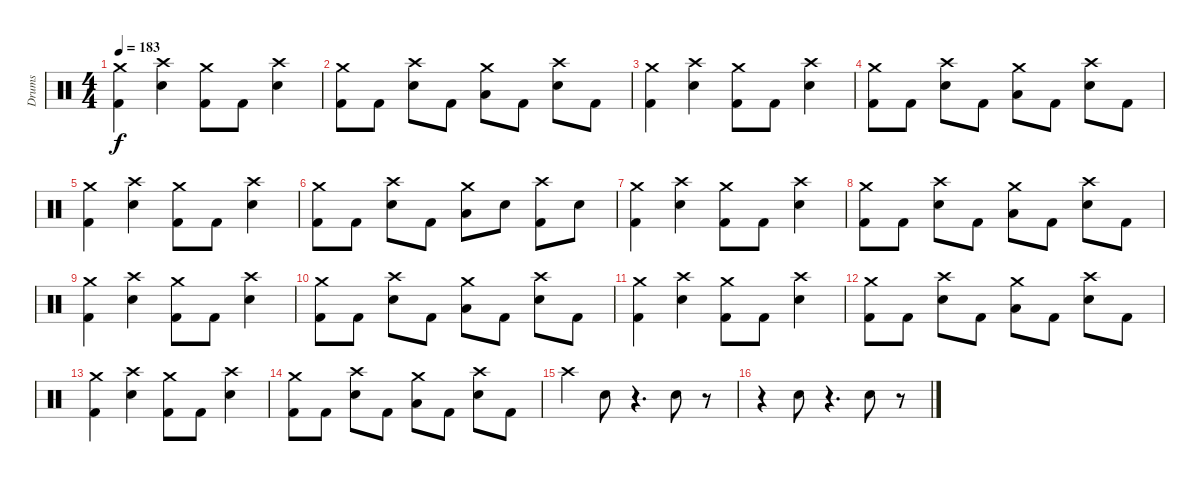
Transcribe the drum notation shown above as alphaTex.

\track ("Drums" "Drums") {instrument percussion}
\staff {score}
\articulation defaults
\ts (4 4)
\tempo 183
\clef neutral
\ks c
("Kick (hit) 2" "Crash medium (hit)").4{dy f} ("Snare (hit) 2" "Crash high (hit)").4 ("Kick (hit) 2" "Crash medium (hit)").8 "Kick (hit) 2".8 ("Snare (hit) 2" "Crash high (hit)").4 |
("Kick (hit) 2" "Crash medium (hit)").8 "Kick (hit) 2".8 ("Snare (hit) 2" "Crash high (hit)").8 "Kick (hit) 2".8 ("Low Tom (hit)" "Crash medium (hit)").8 "Kick (hit) 2".8 ("Snare (hit) 2" "Crash high (hit)").8 "Kick (hit) 2".8 |
("Kick (hit) 2" "Crash medium (hit)").4 ("Snare (hit) 2" "Crash high (hit)").4 ("Kick (hit) 2" "Crash medium (hit)").8 "Kick (hit) 2".8 ("Snare (hit) 2" "Crash high (hit)").4 |
("Kick (hit) 2" "Crash medium (hit)").8 "Kick (hit) 2".8 ("Snare (hit) 2" "Crash high (hit)").8 "Kick (hit) 2".8 ("Low Tom (hit)" "Crash medium (hit)").8 "Kick (hit) 2".8 ("Snare (hit) 2" "Crash high (hit)").8 "Kick (hit) 2".8 |
("Kick (hit) 2" "Crash medium (hit)").4 ("Snare (hit) 2" "Crash high (hit)").4 ("Kick (hit) 2" "Crash medium (hit)").8 "Kick (hit) 2".8 ("Snare (hit) 2" "Crash high (hit)").4 |
("Kick (hit) 2" "Crash medium (hit)").8 "Kick (hit) 2".8 ("Snare (hit) 2" "Crash high (hit)").8 "Kick (hit) 2".8 ("Low Tom (hit)" "Crash medium (hit)").8 "Snare (hit) 2".8 ("Kick (hit) 2" "Crash high (hit)").8 "Snare (hit) 2".8 |
("Kick (hit) 2" "Crash medium (hit)").4 ("Snare (hit) 2" "Crash high (hit)").4 ("Kick (hit) 2" "Crash medium (hit)").8 "Kick (hit) 2".8 ("Snare (hit) 2" "Crash high (hit)").4 |
("Kick (hit) 2" "Crash medium (hit)").8 "Kick (hit) 2".8 ("Snare (hit) 2" "Crash high (hit)").8 "Kick (hit) 2".8 ("Low Tom (hit)" "Crash medium (hit)").8 "Kick (hit) 2".8 ("Snare (hit) 2" "Crash high (hit)").8 "Kick (hit) 2".8 |
("Kick (hit) 2" "Crash medium (hit)").4 ("Snare (hit) 2" "Crash high (hit)").4 ("Kick (hit) 2" "Crash medium (hit)").8 "Kick (hit) 2".8 ("Snare (hit) 2" "Crash high (hit)").4 |
("Kick (hit) 2" "Crash medium (hit)").8 "Kick (hit) 2".8 ("Snare (hit) 2" "Crash high (hit)").8 "Kick (hit) 2".8 ("Low Tom (hit)" "Crash medium (hit)").8 "Kick (hit) 2".8 ("Snare (hit) 2" "Crash high (hit)").8 "Kick (hit) 2".8 |
("Kick (hit) 2" "Crash medium (hit)").4 ("Snare (hit) 2" "Crash high (hit)").4 ("Kick (hit) 2" "Crash medium (hit)").8 "Kick (hit) 2".8 ("Snare (hit) 2" "Crash high (hit)").4 |
("Kick (hit) 2" "Crash medium (hit)").8 "Kick (hit) 2".8 ("Snare (hit) 2" "Crash high (hit)").8 "Kick (hit) 2".8 ("Low Tom (hit)" "Crash medium (hit)").8 "Kick (hit) 2".8 ("Snare (hit) 2" "Crash high (hit)").8 "Kick (hit) 2".8 |
("Kick (hit) 2" "Crash medium (hit)").4 ("Snare (hit) 2" "Crash high (hit)").4 ("Kick (hit) 2" "Crash medium (hit)").8 "Kick (hit) 2".8 ("Snare (hit) 2" "Crash high (hit)").4 |
("Kick (hit) 2" "Crash medium (hit)").8 "Kick (hit) 2".8 ("Snare (hit) 2" "Crash high (hit)").8 "Kick (hit) 2".8 ("Low Tom (hit)" "Crash medium (hit)").8 "Kick (hit) 2".8 ("Snare (hit) 2" "Crash high (hit)").8 "Kick (hit) 2".8 |
"Crash high (hit)".4 "Hand Clap (hit)".8 r.4{d} "Hand Clap (hit)".8 r.8 |
r.4 "Hand Clap (hit)".8 r.4{d} "Hand Clap (hit)".8 r.8
